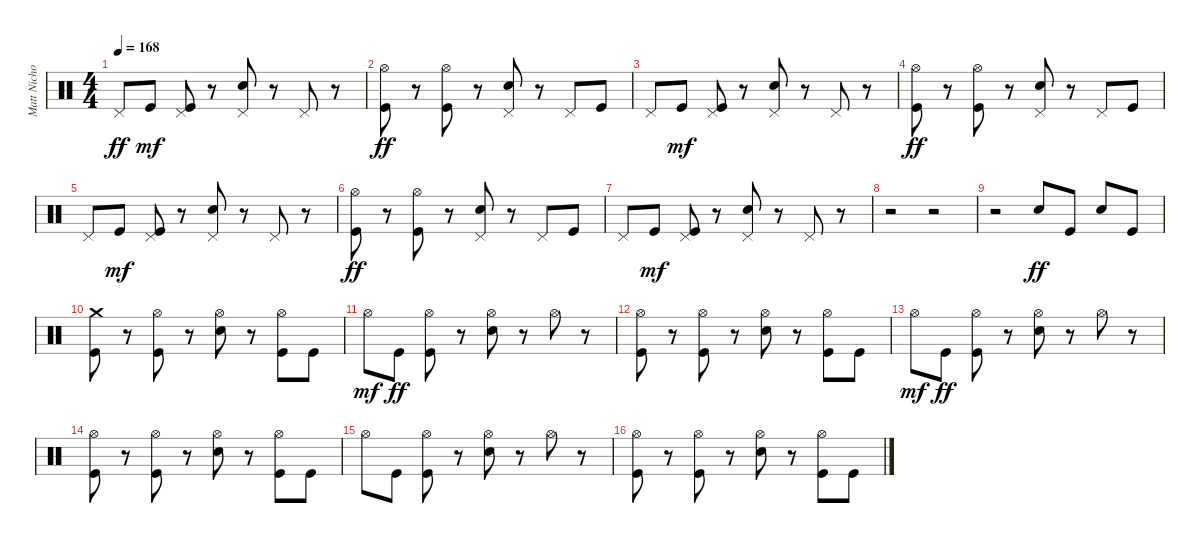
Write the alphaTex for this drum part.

\track ("Matt Nicholls" "Matt Nicho") {instrument percussion}
\staff {score}
\articulation defaults
\ts (4 4)
\tempo 168
\clef neutral
\ks c "Pedal Hi-Hat (hit)".8{dy ff} "Kick (hit)".8{dy mf}
("Kick (hit)" "Pedal Hi-Hat (hit)").8 r.8 ("Snare (hit) 2" "Pedal Hi-Hat (hit)").8 r.8 "Pedal Hi-Hat (hit)".8 r.8 |
("Kick (hit)" "Hi-Hat (open)").8{dy ff} r.8 ("Kick (hit)" "Hi-Hat (open)").8 r.8 ("Snare (hit) 2" "Pedal Hi-Hat (hit)").8 r.8 "Pedal Hi-Hat (hit)".8 "Kick (hit)".8 |
"Pedal Hi-Hat (hit)".8 "Kick (hit)".8{dy mf} ("Kick (hit)" "Pedal Hi-Hat (hit)").8 r.8 ("Snare (hit) 2" "Pedal Hi-Hat (hit)").8 r.8 "Pedal Hi-Hat (hit)".8 r.8 |
("Kick (hit)" "Hi-Hat (open)").8{dy ff} r.8 ("Kick (hit)" "Hi-Hat (open)").8 r.8 ("Snare (hit) 2" "Pedal Hi-Hat (hit)").8 r.8 "Pedal Hi-Hat (hit)".8 "Kick (hit)".8 |
"Pedal Hi-Hat (hit)".8 "Kick (hit)".8{dy mf} ("Kick (hit)" "Pedal Hi-Hat (hit)").8 r.8 ("Snare (hit) 2" "Pedal Hi-Hat (hit)").8 r.8 "Pedal Hi-Hat (hit)".8 r.8 |
("Kick (hit)" "Hi-Hat (open)").8{dy ff} r.8 ("Kick (hit)" "Hi-Hat (open)").8 r.8 ("Snare (hit) 2" "Pedal Hi-Hat (hit)").8 r.8 "Pedal Hi-Hat (hit)".8 "Kick (hit)".8 |
"Pedal Hi-Hat (hit)".8 "Kick (hit)".8{dy mf} ("Kick (hit)" "Pedal Hi-Hat (hit)").8 r.8 ("Snare (hit) 2" "Pedal Hi-Hat (hit)").8 r.8 "Pedal Hi-Hat (hit)".8 r.8 |
r.2 r.2 |
r.2 "Snare (hit) 2".8{dy ff} "Kick (hit)".8 "Snare (hit) 2".8 "Kick (hit)".8 |
("Kick (hit)" "Crash medium (hit)").8 r.8 ("Kick (hit)" "Hi-Hat (open)").8 r.8 ("Snare (hit) 2" "Hi-Hat (open)").8 r.8 ("Kick (hit)" "Hi-Hat (open)").8 "Kick (hit)".8 |
"Hi-Hat (open)".8{dy mf} "Kick (hit)".8{dy ff} ("Kick (hit)" "Hi-Hat (open)").8 r.8 ("Hi-Hat (open)" "Snare (hit) 2").8 r.8 "Hi-Hat (open)".8 r.8 |
("Kick (hit)" "Hi-Hat (open)").8 r.8 ("Kick (hit)" "Hi-Hat (open)").8 r.8 ("Snare (hit) 2" "Hi-Hat (open)").8 r.8 ("Kick (hit)" "Hi-Hat (open)").8 "Kick (hit)".8 |
"Hi-Hat (open)".8{dy mf} "Kick (hit)".8{dy ff} ("Kick (hit)" "Hi-Hat (open)").8 r.8 ("Hi-Hat (open)" "Snare (hit) 2").8 r.8 "Hi-Hat (open)".8 r.8 |
("Kick (hit)" "Hi-Hat (open)").8 r.8 ("Kick (hit)" "Hi-Hat (open)").8 r.8 ("Snare (hit) 2" "Hi-Hat (open)").8 r.8 ("Kick (hit)" "Hi-Hat (open)").8 "Kick (hit)".8 |
"Hi-Hat (open)".8 "Kick (hit)".8 ("Kick (hit)" "Hi-Hat (open)").8 r.8 ("Hi-Hat (open)" "Snare (hit) 2").8 r.8 "Hi-Hat (open)".8 r.8 |
("Kick (hit)" "Hi-Hat (open)").8 r.8 ("Kick (hit)" "Hi-Hat (open)").8 r.8 ("Snare (hit) 2" "Hi-Hat (open)").8 r.8 ("Kick (hit)" "Hi-Hat (open)").8 "Kick (hit)".8
